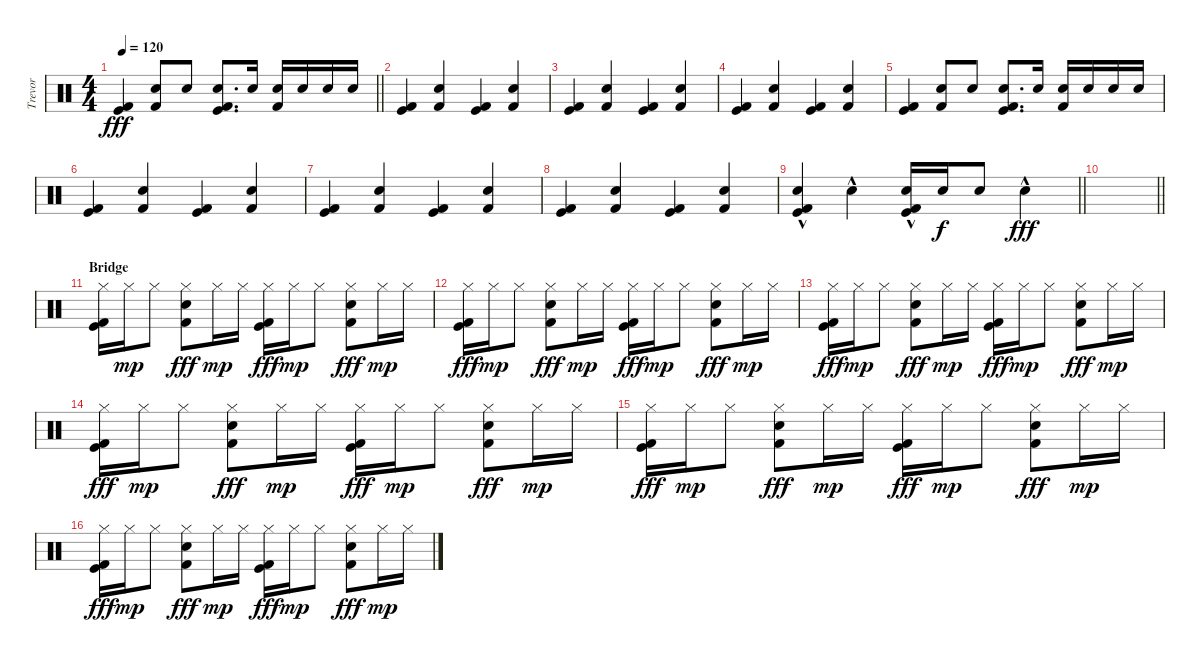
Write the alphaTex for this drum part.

\track ("Trevor" "Trevor") {instrument percussion}
\staff {score}
\articulation defaults
\ts (4 4)
\tempo 120
\clef neutral
\barLineRight lightlight
\ks c
("Kick (hit)" "Kick (hit) 2").4{dy fff} ("Kick (hit) 2" "Snare (hit) 2").8 "Snare (hit) 2".8 ("Kick (hit)" "Kick (hit) 2" "Snare (hit) 2").8{d} "Snare (hit) 2".16 ("Kick (hit) 2" "Snare (hit) 2").16 "Snare (hit) 2".16 "Snare (hit) 2".16 "Snare (hit) 2".16 |
\section ("" "")
("Kick (hit)" "Kick (hit) 2").4 ("Kick (hit) 2" "Snare (hit) 2").4 ("Kick (hit)" "Kick (hit) 2").4 ("Kick (hit) 2" "Snare (hit) 2").4 |
("Kick (hit)" "Kick (hit) 2").4 ("Kick (hit) 2" "Snare (hit) 2").4 ("Kick (hit)" "Kick (hit) 2").4 ("Kick (hit) 2" "Snare (hit) 2").4 |
("Kick (hit)" "Kick (hit) 2").4 ("Kick (hit) 2" "Snare (hit) 2").4 ("Kick (hit)" "Kick (hit) 2").4 ("Kick (hit) 2" "Snare (hit) 2").4 |
("Kick (hit)" "Kick (hit) 2").4 ("Kick (hit) 2" "Snare (hit) 2").8 "Snare (hit) 2".8 ("Kick (hit)" "Kick (hit) 2" "Snare (hit) 2").8{d} "Snare (hit) 2".16 ("Kick (hit) 2" "Snare (hit) 2").16 "Snare (hit) 2".16 "Snare (hit) 2".16 "Snare (hit) 2".16 |
("Kick (hit)" "Kick (hit) 2").4 ("Kick (hit) 2" "Snare (hit) 2").4 ("Kick (hit)" "Kick (hit) 2").4 ("Kick (hit) 2" "Snare (hit) 2").4 |
("Kick (hit)" "Kick (hit) 2").4 ("Kick (hit) 2" "Snare (hit) 2").4 ("Kick (hit)" "Kick (hit) 2").4 ("Kick (hit) 2" "Snare (hit) 2").4 |
("Kick (hit)" "Kick (hit) 2").4 ("Kick (hit) 2" "Snare (hit) 2").4 ("Kick (hit)" "Kick (hit) 2").4 ("Kick (hit) 2" "Snare (hit) 2").4 |
\barLineRight lightlight
("Kick (hit)" "Kick (hit) 2" "Snare (hit) 2"{hac}).4 "Snare (hit) 2"{hac}.4 ("Kick (hit)" "Kick (hit) 2" "Snare (hit) 2"{hac}).16 "Snare (hit) 2".16{dy f} "Snare (hit) 2".8 "Snare (hit) 2"{hac}.4{dy fff} |
\section ("" "")
\barLineRight lightlight
|
\section ("" "Bridge")
("Hi-Hat (closed)" "Kick (hit)" "Kick (hit) 2").16 "Hi-Hat (closed)".16{dy mp} "Hi-Hat (closed)".8 ("Hi-Hat (closed)" "Kick (hit) 2" "Snare (hit) 2").8{dy fff} "Hi-Hat (closed)".16{dy mp} "Hi-Hat (closed)".16 ("Hi-Hat (closed)" "Kick (hit)" "Kick (hit) 2").16{dy fff} "Hi-Hat (closed)".16{dy mp} "Hi-Hat (closed)".8 ("Hi-Hat (closed)" "Kick (hit) 2" "Snare (hit) 2").8{dy fff} "Hi-Hat (closed)".16{dy mp} "Hi-Hat (closed)".16 |
("Hi-Hat (closed)" "Kick (hit)" "Kick (hit) 2").16{dy fff} "Hi-Hat (closed)".16{dy mp} "Hi-Hat (closed)".8 ("Hi-Hat (closed)" "Kick (hit) 2" "Snare (hit) 2").8{dy fff} "Hi-Hat (closed)".16{dy mp} "Hi-Hat (closed)".16 ("Hi-Hat (closed)" "Kick (hit)" "Kick (hit) 2").16{dy fff} "Hi-Hat (closed)".16{dy mp} "Hi-Hat (closed)".8 ("Hi-Hat (closed)" "Kick (hit) 2" "Snare (hit) 2").8{dy fff} "Hi-Hat (closed)".16{dy mp} "Hi-Hat (closed)".16 |
("Hi-Hat (closed)" "Kick (hit)" "Kick (hit) 2").16{dy fff} "Hi-Hat (closed)".16{dy mp} "Hi-Hat (closed)".8 ("Hi-Hat (closed)" "Kick (hit) 2" "Snare (hit) 2").8{dy fff} "Hi-Hat (closed)".16{dy mp} "Hi-Hat (closed)".16 ("Hi-Hat (closed)" "Kick (hit)" "Kick (hit) 2").16{dy fff} "Hi-Hat (closed)".16{dy mp} "Hi-Hat (closed)".8 ("Hi-Hat (closed)" "Kick (hit) 2" "Snare (hit) 2").8{dy fff} "Hi-Hat (closed)".16{dy mp} "Hi-Hat (closed)".16 |
("Hi-Hat (closed)" "Kick (hit)" "Kick (hit) 2").16{dy fff} "Hi-Hat (closed)".16{dy mp} "Hi-Hat (closed)".8 ("Hi-Hat (closed)" "Kick (hit) 2" "Snare (hit) 2").8{dy fff} "Hi-Hat (closed)".16{dy mp} "Hi-Hat (closed)".16 ("Hi-Hat (closed)" "Kick (hit)" "Kick (hit) 2").16{dy fff} "Hi-Hat (closed)".16{dy mp} "Hi-Hat (closed)".8 ("Hi-Hat (closed)" "Kick (hit) 2" "Snare (hit) 2").8{dy fff} "Hi-Hat (closed)".16{dy mp} "Hi-Hat (closed)".16 |
("Hi-Hat (closed)" "Kick (hit)" "Kick (hit) 2").16{dy fff} "Hi-Hat (closed)".16{dy mp} "Hi-Hat (closed)".8 ("Hi-Hat (closed)" "Kick (hit) 2" "Snare (hit) 2").8{dy fff} "Hi-Hat (closed)".16{dy mp} "Hi-Hat (closed)".16 ("Hi-Hat (closed)" "Kick (hit)" "Kick (hit) 2").16{dy fff} "Hi-Hat (closed)".16{dy mp} "Hi-Hat (closed)".8 ("Hi-Hat (closed)" "Kick (hit) 2" "Snare (hit) 2").8{dy fff} "Hi-Hat (closed)".16{dy mp} "Hi-Hat (closed)".16 |
("Hi-Hat (closed)" "Kick (hit)" "Kick (hit) 2").16{dy fff} "Hi-Hat (closed)".16{dy mp} "Hi-Hat (closed)".8 ("Hi-Hat (closed)" "Kick (hit) 2" "Snare (hit) 2").8{dy fff} "Hi-Hat (closed)".16{dy mp} "Hi-Hat (closed)".16 ("Hi-Hat (closed)" "Kick (hit)" "Kick (hit) 2").16{dy fff} "Hi-Hat (closed)".16{dy mp} "Hi-Hat (closed)".8 ("Hi-Hat (closed)" "Kick (hit) 2" "Snare (hit) 2").8{dy fff} "Hi-Hat (closed)".16{dy mp} "Hi-Hat (closed)".16
